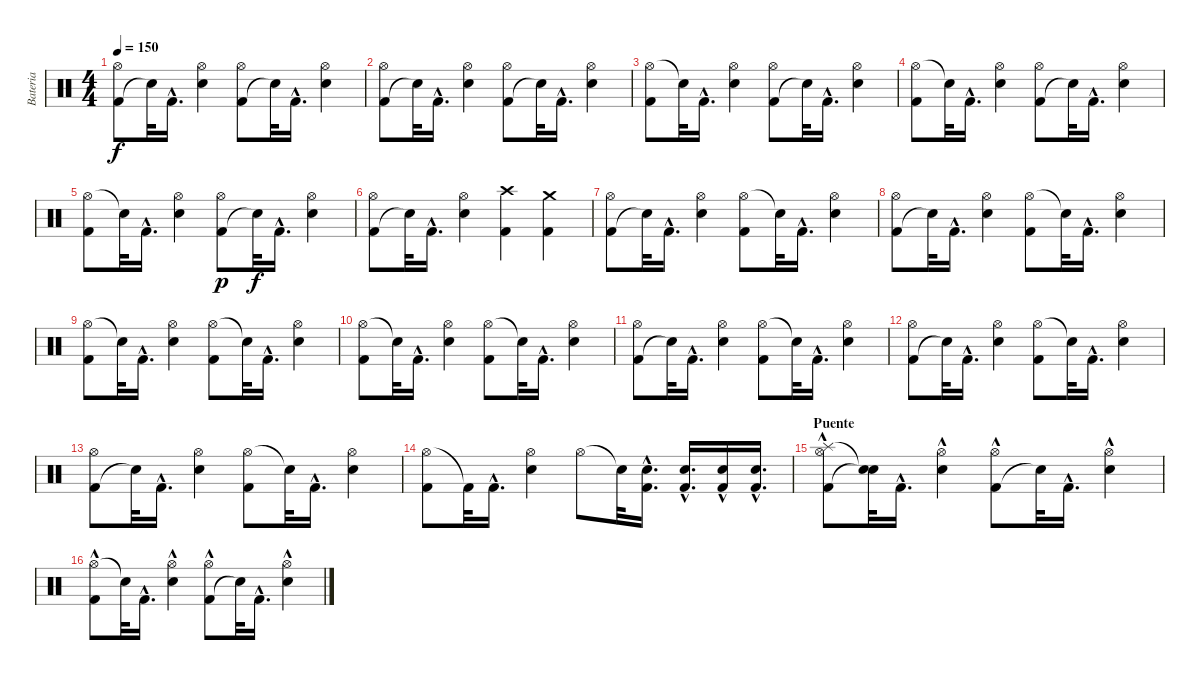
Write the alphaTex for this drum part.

\track ("Bateria" "Bateria") {instrument percussion}
\staff {score}
\articulation defaults
\ts (4 4)
\tempo 150
\clef neutral
\ks c
("Kick (hit) 2" "Hi-Hat (open)").8{dy f} "Snare (hit)"{t}.32 "Kick (hit) 2"{hac}.16{d} ("Snare (hit) 2" "Hi-Hat (open)").4 ("Kick (hit) 2" "Hi-Hat (open)").8 "Snare (hit)"{t}.32 "Kick (hit) 2"{hac}.16{d} ("Hi-Hat (open)" "Snare (hit) 2").4 |
("Kick (hit) 2" "Hi-Hat (open)").8 "Snare (hit)"{t}.32 "Kick (hit) 2"{hac}.16{d} ("Hi-Hat (open)" "Snare (hit) 2").4 ("Kick (hit) 2" "Hi-Hat (open)").8 "Snare (hit)"{t}.32 "Kick (hit) 2"{hac}.16{d} ("Hi-Hat (open)" "Snare (hit) 2").4 |
("Hi-Hat (open)" "Kick (hit) 2").8 "Snare (hit)"{t}.32 "Kick (hit) 2"{hac}.16{d} ("Hi-Hat (open)" "Snare (hit) 2").4 ("Kick (hit) 2" "Hi-Hat (open)").8 "Snare (hit)"{t}.32 "Kick (hit) 2"{hac}.16{d} ("Hi-Hat (open)" "Snare (hit) 2").4 |
("Hi-Hat (open)" "Kick (hit) 2").8 "Snare (hit)"{t}.32 "Kick (hit) 2"{hac}.16{d} ("Hi-Hat (open)" "Snare (hit) 2").4 ("Kick (hit) 2" "Hi-Hat (open)").8 "Snare (hit)"{t}.32 "Kick (hit) 2"{hac}.16{d} ("Hi-Hat (open)" "Snare (hit) 2").4 |
("Hi-Hat (open)" "Kick (hit) 2").8 "Snare (hit)"{t}.32 "Kick (hit) 2"{hac}.16{d} ("Hi-Hat (open)" "Snare (hit) 2").4 ("Kick (hit) 2" "Hi-Hat (open)").8{dy p} "Snare (hit)"{t}.32{dy f} "Kick (hit) 2"{hac}.16{d} ("Hi-Hat (open)" "Snare (hit) 2").4 |
("Kick (hit) 2" "Hi-Hat (open)").8 "Snare (hit)"{t}.32 "Kick (hit) 2"{hac}.16{d} ("Snare (hit) 2" "Hi-Hat (open)").4 ("Crash high (hit)" "Kick (hit) 2").4 ("Crash medium (hit)" "Kick (hit) 2").4 |
("Kick (hit) 2" "Hi-Hat (open)").8 "Snare (hit)"{t}.32 "Kick (hit) 2"{hac}.16{d} ("Snare (hit) 2" "Hi-Hat (open)").4 ("Hi-Hat (open)" "Kick (hit) 2").8 "Snare (hit)"{t}.32 "Kick (hit) 2"{hac}.16{d} ("Snare (hit) 2" "Hi-Hat (open)").4 |
("Kick (hit) 2" "Hi-Hat (open)").8 "Snare (hit)"{t}.32 "Kick (hit) 2"{hac}.16{d} ("Hi-Hat (open)" "Snare (hit) 2").4 ("Hi-Hat (open)" "Kick (hit) 2").8 "Snare (hit)"{t}.32 "Kick (hit) 2"{hac}.16{d} ("Hi-Hat (open)" "Snare (hit) 2").4 |
("Hi-Hat (open)" "Kick (hit) 2").8 "Snare (hit)"{t}.32 "Kick (hit) 2"{hac}.16{d} ("Hi-Hat (open)" "Snare (hit) 2").4 ("Hi-Hat (open)" "Kick (hit) 2").8 "Snare (hit)"{t}.32 "Kick (hit) 2"{hac}.16{d} ("Hi-Hat (open)" "Snare (hit) 2").4 |
("Hi-Hat (open)" "Kick (hit) 2").8 "Snare (hit)"{t}.32 "Kick (hit) 2"{hac}.16{d} ("Hi-Hat (open)" "Snare (hit) 2").4 ("Hi-Hat (open)" "Kick (hit) 2").8 "Snare (hit)"{t}.32 "Kick (hit) 2"{hac}.16{d} ("Hi-Hat (open)" "Snare (hit) 2").4 |
("Kick (hit) 2" "Hi-Hat (open)").8 "Snare (hit)"{t}.32 "Kick (hit) 2"{hac}.16{d} ("Hi-Hat (open)" "Snare (hit) 2").4 ("Hi-Hat (open)" "Kick (hit) 2").8 "Snare (hit)"{t}.32 "Kick (hit) 2"{hac}.16{d} ("Hi-Hat (open)" "Snare (hit) 2").4 |
("Kick (hit) 2" "Hi-Hat (open)").8 "Snare (hit)"{t}.32 "Kick (hit) 2"{hac}.16{d} ("Hi-Hat (open)" "Snare (hit) 2").4 ("Hi-Hat (open)" "Kick (hit) 2").8 "Snare (hit)"{t}.32 "Kick (hit) 2"{hac}.16{d} ("Hi-Hat (open)" "Snare (hit) 2").4 |
("Kick (hit) 2" "Hi-Hat (open)").8 "Snare (hit)"{t}.32 "Kick (hit) 2"{hac}.16{d} ("Hi-Hat (open)" "Snare (hit) 2").4 ("Hi-Hat (open)" "Kick (hit) 2").8 "Snare (hit)"{t}.32 "Kick (hit) 2"{hac}.16{d} ("Hi-Hat (open)" "Snare (hit) 2").4 |
("Hi-Hat (open)" "Kick (hit) 2").8 "Kick (hit) 2"{t}.32 "Kick (hit) 2"{hac}.16{d} ("Hi-Hat (open)" "Snare (hit) 2").4 "Hi-Hat (open)".8 "Snare (hit)"{t}.32 ("Kick (hit) 2"{hac} "Snare (hit) 2"{hac}).16{d} ("Kick (hit) 2"{hac} "Snare (hit) 2"{hac}).16{d} ("Kick (hit) 2"{hac} "Snare (hit) 2"{hac}).16 ("Kick (hit) 2"{hac} "Snare (hit) 2"{hac}).16{d} |
\section ("" "Puente")
("Splash (hit)" "Kick (hit) 2"{hac} "Hi-Hat (open)").8 ("Snare (hit)"{t} "Snare (hit)"{t}).32 "Kick (hit) 2"{hac}.16{d} ("Snare (hit) 2"{hac} "Hi-Hat (open)").4 ("Kick (hit) 2"{hac} "Hi-Hat (open)").8 "Snare (hit)"{t}.32 "Kick (hit) 2"{hac}.16{d} ("Snare (hit) 2"{hac} "Hi-Hat (open)").4 |
("Hi-Hat (open)" "Kick (hit) 2"{hac}).8 "Snare (hit)"{t}.32 "Kick (hit) 2"{hac}.16{d} ("Hi-Hat (open)" "Snare (hit) 2"{hac}).4 ("Kick (hit) 2"{hac} "Hi-Hat (open)").8 "Snare (hit)"{t}.32 "Kick (hit) 2"{hac}.16{d} ("Hi-Hat (open)" "Snare (hit) 2"{hac}).4
